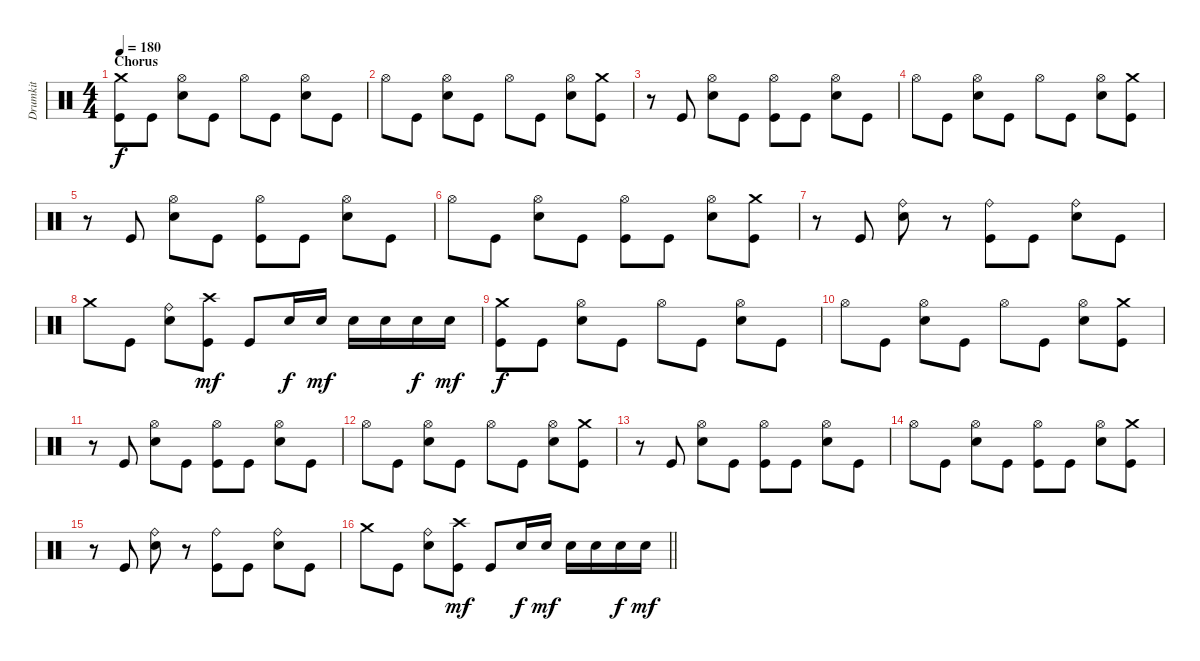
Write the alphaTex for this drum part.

\track ("Drumkit" "Drumkit") {instrument percussion}
\staff {score}
\articulation defaults
\ts (4 4)
\section ("" "Chorus")
\tempo 180
\clef neutral
\ks c
("Crash medium (hit)" "Kick (hit)").8{dy f} "Kick (hit)".8 ("Hi-Hat (open)" "Snare (hit) 2").8 "Kick (hit)".8 "Hi-Hat (open)".8 "Kick (hit)".8 ("Hi-Hat (open)" "Snare (hit) 2").8 "Kick (hit)".8 |
"Hi-Hat (open)".8 "Kick (hit)".8 ("Hi-Hat (open)" "Snare (hit) 2").8 "Kick (hit)".8 "Hi-Hat (open)".8 "Kick (hit)".8 ("Hi-Hat (open)" "Snare (hit) 2").8 ("Crash medium (hit)" "Kick (hit)").8 |
r.8 "Kick (hit)".8 ("Hi-Hat (open)" "Snare (hit) 2").8 "Kick (hit)".8 ("Hi-Hat (open)" "Kick (hit)").8 "Kick (hit)".8 ("Hi-Hat (open)" "Snare (hit) 2").8 "Kick (hit)".8 |
"Hi-Hat (open)".8 "Kick (hit)".8 ("Hi-Hat (open)" "Snare (hit) 2").8 "Kick (hit)".8 "Hi-Hat (open)".8 "Kick (hit)".8 ("Hi-Hat (open)" "Snare (hit) 2").8 ("Crash medium (hit)" "Kick (hit)").8 |
r.8 "Kick (hit)".8 ("Hi-Hat (open)" "Snare (hit) 2").8 "Kick (hit)".8 ("Hi-Hat (open)" "Kick (hit)").8 "Kick (hit)".8 ("Hi-Hat (open)" "Snare (hit) 2").8 "Kick (hit)".8 |
"Hi-Hat (open)".8 "Kick (hit)".8 ("Hi-Hat (open)" "Snare (hit) 2").8 "Kick (hit)".8 ("Hi-Hat (open)" "Kick (hit)").8 "Kick (hit)".8 ("Hi-Hat (open)" "Snare (hit) 2").8 ("Crash medium (hit)" "Kick (hit)").8 |
r.8 "Kick (hit)".8 ("Ride (bell)" "Snare (hit) 2").8 r.8 ("Ride (bell)" "Kick (hit)").8 "Kick (hit)".8 ("Ride (bell)" "Snare (hit) 2").8 "Kick (hit)".8 |
"Crash medium (hit)".8 "Kick (hit)".8 ("Ride (bell)" "Snare (hit) 2").8 ("Crash high (hit)" "Kick (hit)").8{dy mf} "Kick (hit)".8 "Snare (hit) 2".16{dy f} "Snare (hit) 2".16{dy mf} "Snare (hit) 2".16 "Snare (hit) 2".16 "Snare (hit) 2".16{dy f} "Snare (hit) 2".16{dy mf} |
("Crash medium (hit)" "Kick (hit)").8{dy f} "Kick (hit)".8 ("Hi-Hat (open)" "Snare (hit) 2").8 "Kick (hit)".8 "Hi-Hat (open)".8 "Kick (hit)".8 ("Hi-Hat (open)" "Snare (hit) 2").8 "Kick (hit)".8 |
"Hi-Hat (open)".8 "Kick (hit)".8 ("Hi-Hat (open)" "Snare (hit) 2").8 "Kick (hit)".8 "Hi-Hat (open)".8 "Kick (hit)".8 ("Hi-Hat (open)" "Snare (hit) 2").8 ("Crash medium (hit)" "Kick (hit)").8 |
r.8 "Kick (hit)".8 ("Hi-Hat (open)" "Snare (hit) 2").8 "Kick (hit)".8 ("Hi-Hat (open)" "Kick (hit)").8 "Kick (hit)".8 ("Hi-Hat (open)" "Snare (hit) 2").8 "Kick (hit)".8 |
"Hi-Hat (open)".8 "Kick (hit)".8 ("Hi-Hat (open)" "Snare (hit) 2").8 "Kick (hit)".8 "Hi-Hat (open)".8 "Kick (hit)".8 ("Hi-Hat (open)" "Snare (hit) 2").8 ("Crash medium (hit)" "Kick (hit)").8 |
r.8 "Kick (hit)".8 ("Hi-Hat (open)" "Snare (hit) 2").8 "Kick (hit)".8 ("Hi-Hat (open)" "Kick (hit)").8 "Kick (hit)".8 ("Hi-Hat (open)" "Snare (hit) 2").8 "Kick (hit)".8 |
"Hi-Hat (open)".8 "Kick (hit)".8 ("Hi-Hat (open)" "Snare (hit) 2").8 "Kick (hit)".8 ("Hi-Hat (open)" "Kick (hit)").8 "Kick (hit)".8 ("Hi-Hat (open)" "Snare (hit) 2").8 ("Crash medium (hit)" "Kick (hit)").8 |
r.8 "Kick (hit)".8 ("Ride (bell)" "Snare (hit) 2").8 r.8 ("Ride (bell)" "Kick (hit)").8 "Kick (hit)".8 ("Ride (bell)" "Snare (hit) 2").8 "Kick (hit)".8 |
\barLineRight lightlight "Crash medium (hit)".8 "Kick (hit)".8
("Ride (bell)" "Snare (hit) 2").8 ("Crash high (hit)" "Kick (hit)").8{dy mf} "Kick (hit)".8 "Snare (hit) 2".16{dy f} "Snare (hit) 2".16{dy mf} "Snare (hit) 2".16 "Snare (hit) 2".16 "Snare (hit) 2".16{dy f} "Snare (hit) 2".16{dy mf}
